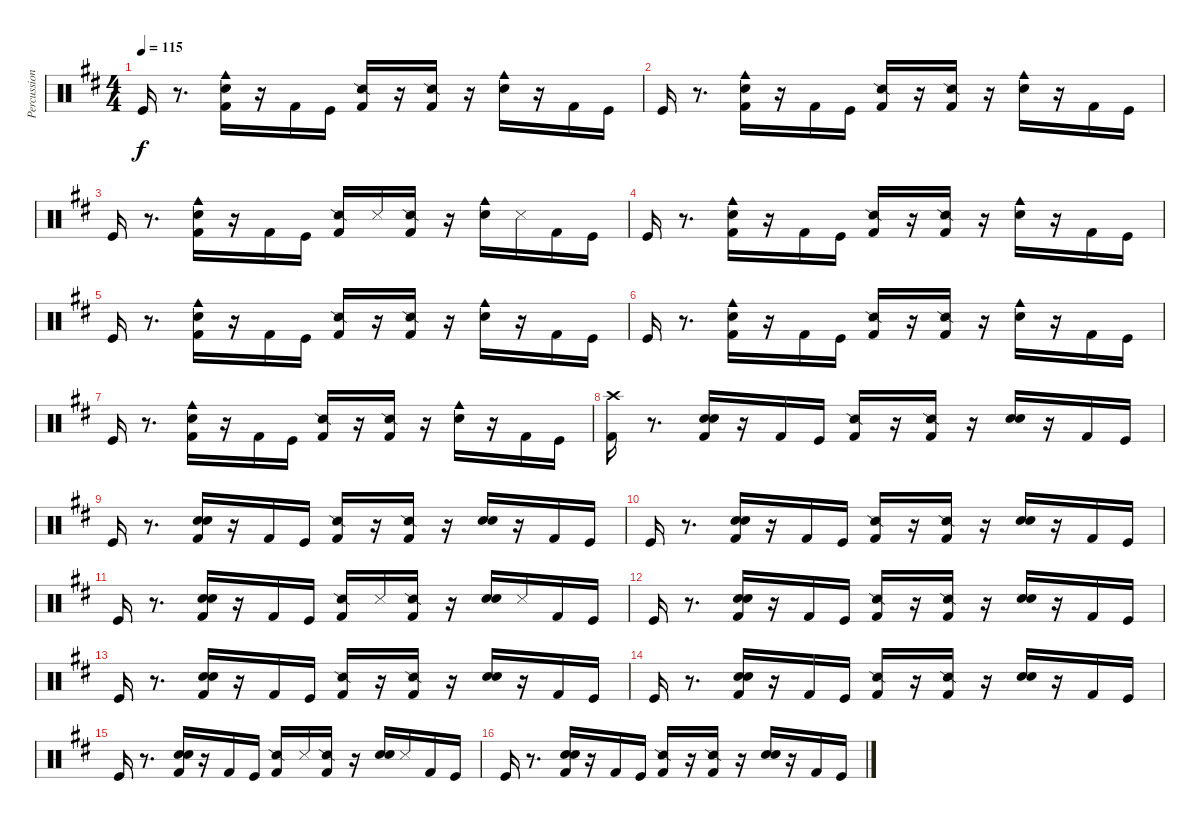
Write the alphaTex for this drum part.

\track ("Percussions" "Percussion") {instrument percussion}
\staff {score}
\articulation defaults
\ts (4 4)
\tempo 115
\clef neutral
\ks bminor "Kick (hit)".16{dy f}
r.8{d} ("Cowbell medium (hit)" "Hand Clap (hit)" "Kick (hit) 2").16 r.16 "Kick (hit) 2".16 "Kick (hit)".16 ("Kick (hit) 2" "Snare (side stick) 2").16 r.16 ("Kick (hit) 2" "Snare (side stick) 2").16 r.16 ("Cowbell medium (hit)" "Hand Clap (hit)").16 r.16 "Kick (hit) 2".16 "Kick (hit)".16 |
"Kick (hit)".16 r.8{d} ("Cowbell medium (hit)" "Hand Clap (hit)" "Kick (hit) 2").16 r.16 "Kick (hit) 2".16 "Kick (hit)".16 ("Kick (hit) 2" "Snare (side stick) 2").16 r.16 ("Kick (hit) 2" "Snare (side stick) 2").16 r.16 ("Cowbell medium (hit)" "Hand Clap (hit)").16 r.16 "Kick (hit) 2".16 "Kick (hit)".16 |
"Kick (hit)".16 r.8{d} ("Cowbell medium (hit)" "Hand Clap (hit)" "Kick (hit) 2").16 r.16 "Kick (hit) 2".16 "Kick (hit)".16 ("Kick (hit) 2" "Snare (side stick) 2").16 "Metronome (hit)".16 ("Kick (hit) 2" "Snare (side stick) 2").16 r.16 ("Cowbell medium (hit)" "Hand Clap (hit)").16 "Metronome (hit)".16 "Kick (hit) 2".16 "Kick (hit)".16 |
"Kick (hit)".16 r.8{d} ("Cowbell medium (hit)" "Hand Clap (hit)" "Kick (hit) 2").16 r.16 "Kick (hit) 2".16 "Kick (hit)".16 ("Kick (hit) 2" "Snare (side stick) 2").16 r.16 ("Kick (hit) 2" "Snare (side stick) 2").16 r.16 ("Cowbell medium (hit)" "Hand Clap (hit)").16 r.16 "Kick (hit) 2".16 "Kick (hit)".16 |
"Kick (hit)".16 r.8{d} ("Cowbell medium (hit)" "Hand Clap (hit)" "Kick (hit) 2").16 r.16 "Kick (hit) 2".16 "Kick (hit)".16 ("Kick (hit) 2" "Snare (side stick) 2").16 r.16 ("Kick (hit) 2" "Snare (side stick) 2").16 r.16 ("Cowbell medium (hit)" "Hand Clap (hit)").16 r.16 "Kick (hit) 2".16 "Kick (hit)".16 |
"Kick (hit)".16 r.8{d} ("Cowbell medium (hit)" "Hand Clap (hit)" "Kick (hit) 2").16 r.16 "Kick (hit) 2".16 "Kick (hit)".16 ("Kick (hit) 2" "Snare (side stick) 2").16 r.16 ("Kick (hit) 2" "Snare (side stick) 2").16 r.16 ("Cowbell medium (hit)" "Hand Clap (hit)").16 r.16 "Kick (hit) 2".16 "Kick (hit)".16 |
"Kick (hit)".16 r.8{d} ("Cowbell medium (hit)" "Hand Clap (hit)" "Kick (hit) 2").16 r.16 "Kick (hit) 2".16 "Kick (hit)".16 ("Kick (hit) 2" "Snare (side stick) 2").16 r.16 ("Kick (hit) 2" "Snare (side stick) 2").16 r.16 ("Cowbell medium (hit)" "Hand Clap (hit)").16 r.16 "Kick (hit) 2".16 "Kick (hit)".16 |
("Crash high (hit)" "Kick (hit) 2").16 r.8{d} ("Hand Clap (hit)" "Snare (hit) 2" "Kick (hit) 2").16 r.16 "Kick (hit) 2".16 "Kick (hit)".16 ("Kick (hit) 2" "Snare (side stick) 2").16 r.16 ("Kick (hit) 2" "Snare (side stick) 2").16 r.16 ("Hand Clap (hit)" "Snare (hit) 2").16 r.16 "Kick (hit) 2".16 "Kick (hit)".16 |
"Kick (hit)".16 r.8{d} ("Hand Clap (hit)" "Snare (hit) 2" "Kick (hit) 2").16 r.16 "Kick (hit) 2".16 "Kick (hit)".16 ("Kick (hit) 2" "Snare (side stick) 2").16 r.16 ("Kick (hit) 2" "Snare (side stick) 2").16 r.16 ("Hand Clap (hit)" "Snare (hit) 2").16 r.16 "Kick (hit) 2".16 "Kick (hit)".16 |
"Kick (hit)".16 r.8{d} ("Hand Clap (hit)" "Snare (hit) 2" "Kick (hit) 2").16 r.16 "Kick (hit) 2".16 "Kick (hit)".16 ("Kick (hit) 2" "Snare (side stick) 2").16 r.16 ("Kick (hit) 2" "Snare (side stick) 2").16 r.16 ("Hand Clap (hit)" "Snare (hit) 2").16 r.16 "Kick (hit) 2".16 "Kick (hit)".16 |
"Kick (hit)".16 r.8{d} ("Hand Clap (hit)" "Snare (hit) 2" "Kick (hit) 2").16 r.16 "Kick (hit) 2".16 "Kick (hit)".16 ("Kick (hit) 2" "Snare (side stick) 2").16 "Metronome (hit)".16 ("Kick (hit) 2" "Snare (side stick) 2").16 r.16 ("Hand Clap (hit)" "Snare (hit) 2").16 "Metronome (hit)".16 "Kick (hit) 2".16 "Kick (hit)".16 |
"Kick (hit)".16 r.8{d} ("Hand Clap (hit)" "Snare (hit) 2" "Kick (hit) 2").16 r.16 "Kick (hit) 2".16 "Kick (hit)".16 ("Kick (hit) 2" "Snare (side stick) 2").16 r.16 ("Kick (hit) 2" "Snare (side stick) 2").16 r.16 ("Hand Clap (hit)" "Snare (hit) 2").16 r.16 "Kick (hit) 2".16 "Kick (hit)".16 |
"Kick (hit)".16 r.8{d} ("Hand Clap (hit)" "Snare (hit) 2" "Kick (hit) 2").16 r.16 "Kick (hit) 2".16 "Kick (hit)".16 ("Kick (hit) 2" "Snare (side stick) 2").16 r.16 ("Kick (hit) 2" "Snare (side stick) 2").16 r.16 ("Hand Clap (hit)" "Snare (hit) 2").16 r.16 "Kick (hit) 2".16 "Kick (hit)".16 |
"Kick (hit)".16 r.8{d} ("Hand Clap (hit)" "Snare (hit) 2" "Kick (hit) 2").16 r.16 "Kick (hit) 2".16 "Kick (hit)".16 ("Kick (hit) 2" "Snare (side stick) 2").16 r.16 ("Kick (hit) 2" "Snare (side stick) 2").16 r.16 ("Hand Clap (hit)" "Snare (hit) 2").16 r.16 "Kick (hit) 2".16 "Kick (hit)".16 |
"Kick (hit)".16 r.8{d} ("Hand Clap (hit)" "Snare (hit) 2" "Kick (hit) 2").16 r.16 "Kick (hit) 2".16 "Kick (hit)".16 ("Kick (hit) 2" "Snare (side stick) 2").16 "Metronome (hit)".16 ("Kick (hit) 2" "Snare (side stick) 2").16 r.16 ("Hand Clap (hit)" "Snare (hit) 2").16 "Metronome (hit)".16 "Kick (hit) 2".16 "Kick (hit)".16 |
"Kick (hit)".16 r.8{d} ("Hand Clap (hit)" "Snare (hit) 2" "Kick (hit) 2").16 r.16 "Kick (hit) 2".16 "Kick (hit)".16 ("Kick (hit) 2" "Snare (side stick) 2").16 r.16 ("Kick (hit) 2" "Snare (side stick) 2").16 r.16 ("Hand Clap (hit)" "Snare (hit) 2").16 r.16 "Kick (hit) 2".16 "Kick (hit)".16
